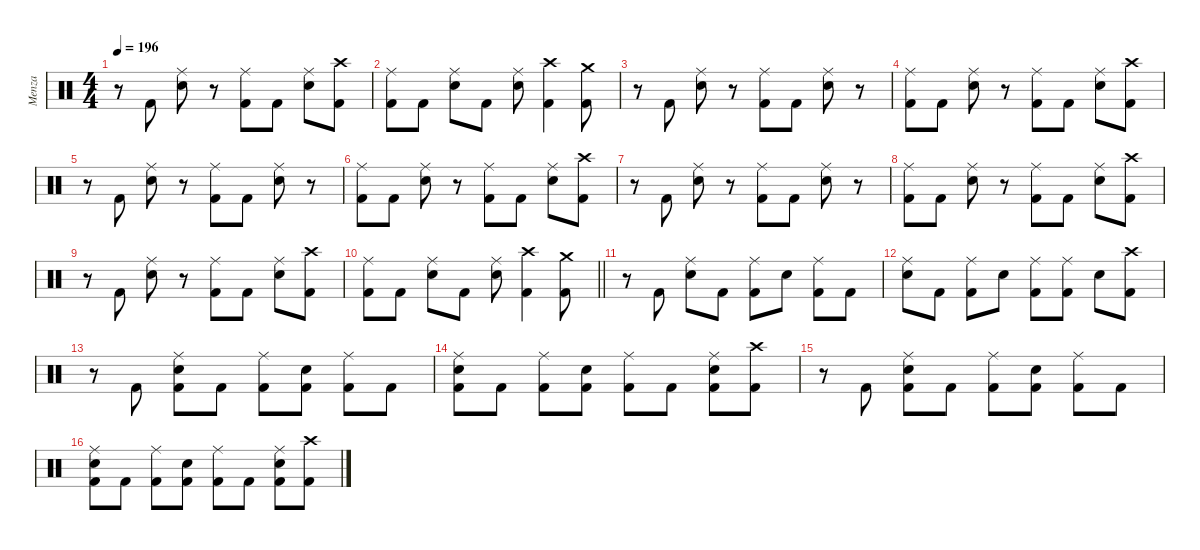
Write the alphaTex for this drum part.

\defaultSystemsLayout 4
\hideDynamics
\bracketExtendMode nobrackets
\firstSystemTrackNameMode fullname
\otherSystemsTrackNameOrientation horizontal
\track ("Menza" "drm.") {instrument percussion}
\staff {score}
\articulation defaults
\ts (4 4)
\tempo 196
\clef neutral
\ks c
r.8{dy fff beam Down} "Kick (hit) 2".8{beam Up} ("Ride (middle)" "Snare (hit) 2").8{dy ff beam Down} r.8{beam Down} ("Ride (middle)" "Kick (hit) 2").8{beam Down} "Kick (hit) 2".8{dy fff beam Down} ("Ride (middle)" "Snare (hit) 2").8{dy ff beam Down} ("Crash high (hit)" "Kick (hit) 2").8{beam Down} |
("Ride (middle)" "Kick (hit) 2").8{beam Down} "Kick (hit) 2".8{dy fff beam Down} ("Ride (middle)" "Snare (hit) 2").8{dy ff beam Down} "Kick (hit) 2".8{dy fff beam Down} ("Ride (middle)" "Snare (hit) 2").8{dy ff beam Down} ("Crash high (hit)" "Kick (hit) 2").4{beam Down} ("Crash medium (hit)" "Kick (hit) 2").8{dy fff beam Down} |
r.8{beam Down} "Kick (hit) 2".8{beam Up} ("Ride (middle)" "Snare (hit) 2").8{dy ff beam Down} r.8{beam Down} ("Ride (middle)" "Kick (hit) 2").8{beam Down} "Kick (hit) 2".8{dy fff beam Down} ("Ride (middle)" "Snare (hit) 2").8{dy ff beam Down} r.8{beam Down} |
("Ride (middle)" "Kick (hit) 2").8{beam Down} "Kick (hit) 2".8{dy fff beam Down} ("Ride (middle)" "Snare (hit) 2").8{dy ff beam Down} r.8{beam Down} ("Ride (middle)" "Kick (hit) 2").8{beam Down} "Kick (hit) 2".8{dy fff beam Down} ("Ride (middle)" "Snare (hit) 2").8{dy ff beam Down} ("Crash high (hit)" "Kick (hit) 2").8{dy fff beam Down} |
r.8{beam Down} "Kick (hit) 2".8{beam Up} ("Ride (middle)" "Snare (hit) 2").8{dy ff beam Down} r.8{beam Down} ("Ride (middle)" "Kick (hit) 2").8{beam Down} "Kick (hit) 2".8{dy fff beam Down} ("Ride (middle)" "Snare (hit) 2").8{dy ff beam Down} r.8{beam Down} |
("Ride (middle)" "Kick (hit) 2").8{beam Down} "Kick (hit) 2".8{dy fff beam Down} ("Ride (middle)" "Snare (hit) 2").8{dy ff beam Down} r.8{beam Down} ("Ride (middle)" "Kick (hit) 2").8{beam Down} "Kick (hit) 2".8{dy fff beam Down} ("Ride (middle)" "Snare (hit) 2").8{dy ff beam Down} ("Crash high (hit)" "Kick (hit) 2").8{dy fff beam Down} |
r.8{beam Down} "Kick (hit) 2".8{beam Up} ("Ride (middle)" "Snare (hit) 2").8{dy ff beam Down} r.8{beam Down} ("Ride (middle)" "Kick (hit) 2").8{beam Down} "Kick (hit) 2".8{dy fff beam Down} ("Ride (middle)" "Snare (hit) 2").8{dy ff beam Down} r.8{beam Down} |
("Ride (middle)" "Kick (hit) 2").8{beam Down} "Kick (hit) 2".8{dy fff beam Down} ("Ride (middle)" "Snare (hit) 2").8{dy ff beam Down} r.8{beam Down} ("Ride (middle)" "Kick (hit) 2").8{beam Down} "Kick (hit) 2".8{dy fff beam Down} ("Ride (middle)" "Snare (hit) 2").8{dy ff beam Down} ("Crash high (hit)" "Kick (hit) 2").8{dy fff beam Down} |
r.8{beam Down} "Kick (hit) 2".8{beam Up} ("Ride (middle)" "Snare (hit) 2").8{dy ff beam Down} r.8{beam Down} ("Ride (middle)" "Kick (hit) 2").8{beam Down} "Kick (hit) 2".8{dy fff beam Down} ("Ride (middle)" "Snare (hit) 2").8{dy ff beam Down} ("Crash high (hit)" "Kick (hit) 2").8{beam Down} |
\barLineRight lightlight
("Ride (middle)" "Kick (hit) 2").8{beam Down} "Kick (hit) 2".8{dy fff beam Down} ("Ride (middle)" "Snare (hit) 2").8{dy ff beam Down} "Kick (hit) 2".8{dy fff beam Down} ("Ride (middle)" "Snare (hit) 2").8{dy ff beam Down} ("Crash high (hit)" "Kick (hit) 2").4{beam Down} ("Crash medium (hit)" "Kick (hit) 2").8{dy fff beam Down} |
r.8{beam Down} "Kick (hit) 2".8{beam Up} ("Ride (middle)" "Snare (hit) 2").8{dy f beam Down} "Kick (hit) 2".8{dy fff beam Down} ("Ride (middle)" "Kick (hit) 2").8{dy f beam Down} "Snare (hit) 2".8{dy fff beam Down} ("Ride (middle)" "Kick (hit) 2").8{dy f beam Down} "Kick (hit) 2".8{dy fff beam Down} |
("Ride (middle)" "Snare (hit) 2").8{dy f beam Down} "Kick (hit) 2".8{dy fff beam Down} ("Ride (middle)" "Kick (hit) 2").8{dy f beam Down} "Snare (hit) 2".8{dy fff beam Down} ("Ride (middle)" "Kick (hit) 2").8{dy f beam Down} ("Ride (middle)" "Kick (hit) 2").8{beam Down} "Snare (hit) 2".8{dy fff beam Down} ("Crash high (hit)" "Kick (hit) 2").8{beam Down} |
r.8{beam Down} "Kick (hit) 2".8{beam Up} ("Ride (middle)" "Snare (hit) 2" "Kick (hit) 2").8{dy f beam Down} "Kick (hit) 2".8{dy fff beam Down} ("Ride (middle)" "Kick (hit) 2").8{dy f beam Down} ("Snare (hit) 2" "Kick (hit) 2").8{dy fff beam Down} ("Ride (middle)" "Kick (hit) 2").8{dy f beam Down} "Kick (hit) 2".8{dy fff beam Down} |
("Ride (middle)" "Snare (hit) 2" "Kick (hit) 2").8{dy f beam Down} "Kick (hit) 2".8{dy fff beam Down} ("Ride (middle)" "Kick (hit) 2").8{dy f beam Down} ("Snare (hit) 2" "Kick (hit) 2").8{dy fff beam Down} ("Ride (middle)" "Kick (hit) 2").8{dy f beam Down} "Kick (hit) 2".8{dy fff beam Down} ("Ride (middle)" "Snare (hit) 2" "Kick (hit) 2").8{dy f beam Down} ("Crash high (hit)" "Kick (hit) 2").8{dy fff beam Down} |
r.8{beam Down} "Kick (hit) 2".8{beam Up} ("Ride (middle)" "Snare (hit) 2" "Kick (hit) 2").8{dy f beam Down} "Kick (hit) 2".8{dy fff beam Down} ("Ride (middle)" "Kick (hit) 2").8{dy f beam Down} ("Snare (hit) 2" "Kick (hit) 2").8{dy fff beam Down} ("Ride (middle)" "Kick (hit) 2").8{dy f beam Down} "Kick (hit) 2".8{dy fff beam Down} |
("Ride (middle)" "Snare (hit) 2" "Kick (hit) 2").8{dy f beam Down} "Kick (hit) 2".8{dy fff beam Down} ("Ride (middle)" "Kick (hit) 2").8{dy f beam Down} ("Snare (hit) 2" "Kick (hit) 2").8{dy fff beam Down} ("Ride (middle)" "Kick (hit) 2").8{dy f beam Down} "Kick (hit) 2".8{dy fff beam Down} ("Ride (middle)" "Snare (hit) 2" "Kick (hit) 2").8{dy f beam Down} ("Crash high (hit)" "Kick (hit) 2").8{dy fff beam Down}
